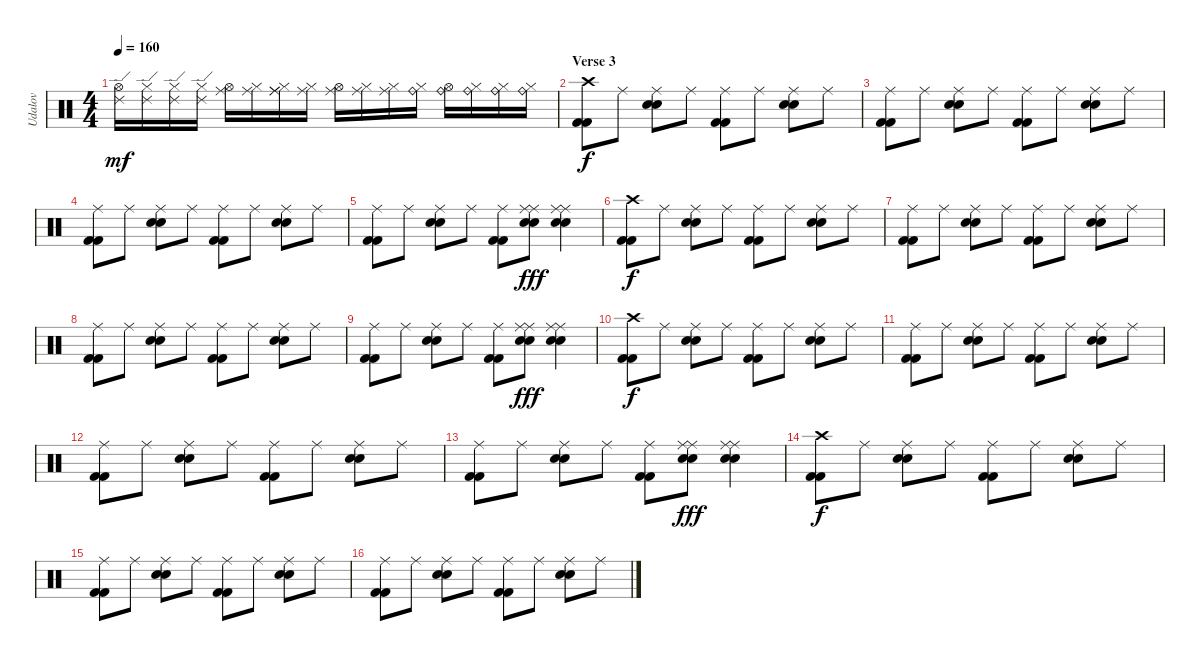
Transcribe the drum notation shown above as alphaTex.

\track ("Udalov" "Udalov") {instrument percussion}
\staff {score}
\articulation defaults
\ts (4 4)
\tempo 160
\clef neutral
\ks c
("Hi-Hat (open)" "Ride (edge) 2").16{dy mf} ("Hi-Hat (closed)" "Ride (edge) 2").16 ("Hi-Hat (closed)" "Ride (edge) 2").16 ("Hi-Hat (closed)" "Ride (edge) 2").16 ("Hi-Hat (open)" "Ride (middle)").16 ("Hi-Hat (closed)" "Ride (middle)").16 ("Hi-Hat (closed)" "Ride (middle)" "Ride (middle)").16 ("Hi-Hat (closed)" "Ride (middle)").16 ("Hi-Hat (open)" "Ride (middle)").16 ("Hi-Hat (closed)" "Ride (middle)").16 ("Hi-Hat (closed)" "Ride (middle)").16 ("Hi-Hat (closed)" "Ride (bell)").16 ("Hi-Hat (open)" "Ride (bell)").16 ("Hi-Hat (closed)" "Ride (bell)").16 ("Hi-Hat (closed)" "Ride (bell)").16 ("Hi-Hat (closed)" "Ride (bell)").16 |
\section ("" "Verse 3")
("Crash high (hit)" "Kick (hit) 2" "Kick (hit) 2").8{dy f} "Ride (middle)".8 ("Ride (middle)" "Electric Snare (hit)" "Electric Snare (hit)").8 "Ride (middle)".8 ("Ride (middle)" "Kick (hit) 2" "Kick (hit) 2").8 "Ride (middle)".8 ("Ride (middle)" "Electric Snare (hit)" "Electric Snare (hit)").8 "Ride (middle)".8 |
("Ride (middle)" "Kick (hit) 2" "Kick (hit) 2").8 "Ride (middle)".8 ("Ride (middle)" "Electric Snare (hit)" "Electric Snare (hit)").8 "Ride (middle)".8 ("Ride (middle)" "Kick (hit) 2" "Kick (hit) 2").8 "Ride (middle)".8 ("Ride (middle)" "Electric Snare (hit)" "Electric Snare (hit)").8 "Ride (middle)".8 |
("Ride (middle)" "Kick (hit) 2" "Kick (hit) 2").8 "Ride (middle)".8 ("Ride (middle)" "Electric Snare (hit)" "Electric Snare (hit)").8 "Ride (middle)".8 ("Ride (middle)" "Kick (hit) 2" "Kick (hit) 2").8 "Ride (middle)".8 ("Ride (middle)" "Electric Snare (hit)" "Electric Snare (hit)").8 "Ride (middle)".8 |
("Ride (middle)" "Kick (hit) 2" "Kick (hit) 2").8 "Ride (middle)".8 ("Ride (middle)" "Electric Snare (hit)" "Electric Snare (hit)").8 "Ride (middle)".8 ("Ride (middle)" "Kick (hit) 2" "Kick (hit) 2").8 ("Ride (middle)" "Ride (middle)" "Electric Snare (hit)" "Electric Snare (hit)").8{dy fff} ("Ride (middle)" "Ride (middle)" "Electric Snare (hit)" "Electric Snare (hit)").4 |
("Crash high (hit)" "Kick (hit) 2" "Kick (hit) 2").8{dy f} "Ride (middle)".8 ("Ride (middle)" "Electric Snare (hit)" "Electric Snare (hit)").8 "Ride (middle)".8 ("Ride (middle)" "Kick (hit) 2" "Kick (hit) 2").8 "Ride (middle)".8 ("Ride (middle)" "Electric Snare (hit)" "Electric Snare (hit)").8 "Ride (middle)".8 |
("Ride (middle)" "Kick (hit) 2" "Kick (hit) 2").8 "Ride (middle)".8 ("Ride (middle)" "Electric Snare (hit)" "Electric Snare (hit)").8 "Ride (middle)".8 ("Ride (middle)" "Kick (hit) 2" "Kick (hit) 2").8 "Ride (middle)".8 ("Ride (middle)" "Electric Snare (hit)" "Electric Snare (hit)").8 "Ride (middle)".8 |
("Ride (middle)" "Kick (hit) 2" "Kick (hit) 2").8 "Ride (middle)".8 ("Ride (middle)" "Electric Snare (hit)" "Electric Snare (hit)").8 "Ride (middle)".8 ("Ride (middle)" "Kick (hit) 2" "Kick (hit) 2").8 "Ride (middle)".8 ("Ride (middle)" "Electric Snare (hit)" "Electric Snare (hit)").8 "Ride (middle)".8 |
("Ride (middle)" "Kick (hit) 2" "Kick (hit) 2").8 "Ride (middle)".8 ("Ride (middle)" "Electric Snare (hit)" "Electric Snare (hit)").8 "Ride (middle)".8 ("Ride (middle)" "Kick (hit) 2" "Kick (hit) 2").8 ("Ride (middle)" "Ride (middle)" "Electric Snare (hit)" "Electric Snare (hit)").8{dy fff} ("Ride (middle)" "Ride (middle)" "Electric Snare (hit)" "Electric Snare (hit)").4 |
("Crash high (hit)" "Kick (hit) 2" "Kick (hit) 2").8{dy f} "Ride (middle)".8 ("Ride (middle)" "Electric Snare (hit)" "Electric Snare (hit)").8 "Ride (middle)".8 ("Ride (middle)" "Kick (hit) 2" "Kick (hit) 2").8 "Ride (middle)".8 ("Ride (middle)" "Electric Snare (hit)" "Electric Snare (hit)").8 "Ride (middle)".8 |
("Ride (middle)" "Kick (hit) 2" "Kick (hit) 2").8 "Ride (middle)".8 ("Ride (middle)" "Electric Snare (hit)" "Electric Snare (hit)").8 "Ride (middle)".8 ("Ride (middle)" "Kick (hit) 2" "Kick (hit) 2").8 "Ride (middle)".8 ("Ride (middle)" "Electric Snare (hit)" "Electric Snare (hit)").8 "Ride (middle)".8 |
("Ride (middle)" "Kick (hit) 2" "Kick (hit) 2").8 "Ride (middle)".8 ("Ride (middle)" "Electric Snare (hit)" "Electric Snare (hit)").8 "Ride (middle)".8 ("Ride (middle)" "Kick (hit) 2" "Kick (hit) 2").8 "Ride (middle)".8 ("Ride (middle)" "Electric Snare (hit)" "Electric Snare (hit)").8 "Ride (middle)".8 |
("Ride (middle)" "Kick (hit) 2" "Kick (hit) 2").8 "Ride (middle)".8 ("Ride (middle)" "Electric Snare (hit)" "Electric Snare (hit)").8 "Ride (middle)".8 ("Ride (middle)" "Kick (hit) 2" "Kick (hit) 2").8 ("Ride (middle)" "Ride (middle)" "Electric Snare (hit)" "Electric Snare (hit)").8{dy fff} ("Ride (middle)" "Ride (middle)" "Electric Snare (hit)" "Electric Snare (hit)").4 |
("Crash high (hit)" "Kick (hit) 2" "Kick (hit) 2").8{dy f} "Ride (middle)".8 ("Ride (middle)" "Electric Snare (hit)" "Electric Snare (hit)").8 "Ride (middle)".8 ("Ride (middle)" "Kick (hit) 2" "Kick (hit) 2").8 "Ride (middle)".8 ("Ride (middle)" "Electric Snare (hit)" "Electric Snare (hit)").8 "Ride (middle)".8 |
("Ride (middle)" "Kick (hit) 2" "Kick (hit) 2").8 "Ride (middle)".8 ("Ride (middle)" "Electric Snare (hit)" "Electric Snare (hit)").8 "Ride (middle)".8 ("Ride (middle)" "Kick (hit) 2" "Kick (hit) 2").8 "Ride (middle)".8 ("Ride (middle)" "Electric Snare (hit)" "Electric Snare (hit)").8 "Ride (middle)".8 |
("Ride (middle)" "Kick (hit) 2" "Kick (hit) 2").8 "Ride (middle)".8 ("Ride (middle)" "Electric Snare (hit)" "Electric Snare (hit)").8 "Ride (middle)".8 ("Ride (middle)" "Kick (hit) 2" "Kick (hit) 2").8 "Ride (middle)".8 ("Ride (middle)" "Electric Snare (hit)" "Electric Snare (hit)").8 "Ride (middle)".8
